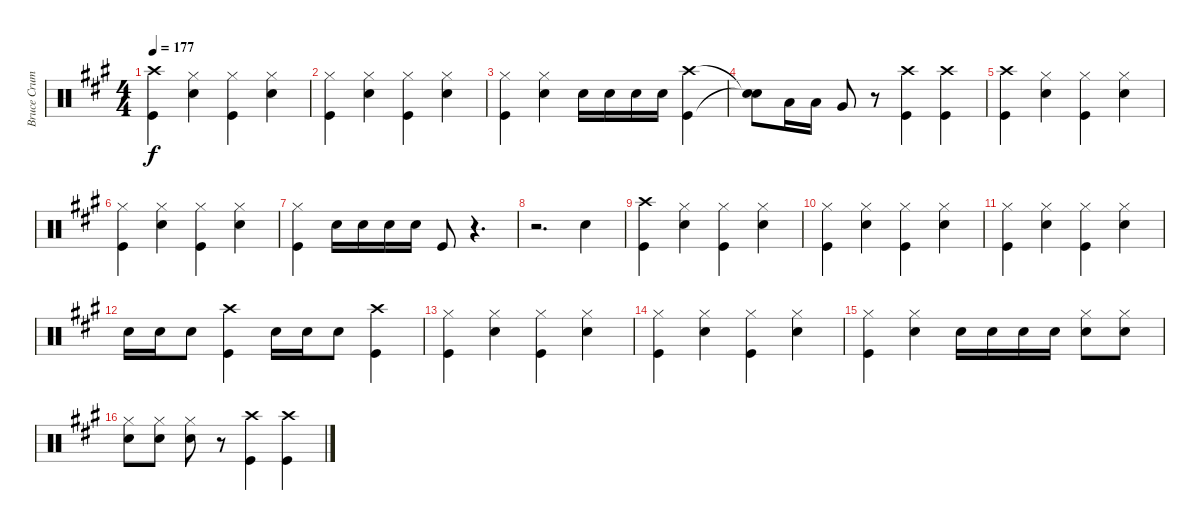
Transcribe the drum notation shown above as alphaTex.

\track ("Bruce Crump Drums" "Bruce Crum") {instrument percussion}
\staff {score}
\articulation defaults
\ts (4 4)
\tempo 177
\clef neutral
\ks a
("Crash high (hit)" "Kick (hit)").4{dy f} ("Hi-Hat (closed)" "Snare (hit) 2").4 ("Hi-Hat (closed)" "Kick (hit)").4 ("Hi-Hat (closed)" "Snare (hit) 2").4 |
("Hi-Hat (closed)" "Kick (hit)").4 ("Hi-Hat (closed)" "Snare (hit) 2").4 ("Hi-Hat (closed)" "Kick (hit)").4 ("Hi-Hat (closed)" "Snare (hit) 2").4 |
("Hi-Hat (closed)" "Kick (hit)").4 ("Hi-Hat (closed)" "Snare (hit) 2").4 "Snare (hit) 2".16 "Snare (hit) 2".16 "Snare (hit) 2".16 "Snare (hit) 2".16 ("Crash high (hit)" "Kick (hit)").4 |
("Snare (hit)"{t} "Snare (hit)"{t}).8 "Low Tom (hit)".16 "Low Tom (hit)".16 "Very Low Tom (hit)".8 r.8 ("Crash high (hit)" "Kick (hit)").4 ("Crash high (hit)" "Kick (hit)").4 |
("Crash high (hit)" "Kick (hit)").4 ("Hi-Hat (closed)" "Snare (hit) 2").4 ("Hi-Hat (closed)" "Kick (hit)").4 ("Hi-Hat (closed)" "Snare (hit) 2").4 |
("Hi-Hat (closed)" "Kick (hit)").4 ("Hi-Hat (closed)" "Snare (hit) 2").4 ("Hi-Hat (closed)" "Kick (hit)").4 ("Hi-Hat (closed)" "Snare (hit) 2").4 |
("Hi-Hat (closed)" "Kick (hit)").4 "Snare (hit) 2".16 "Snare (hit) 2".16 "Snare (hit) 2".16 "Snare (hit) 2".16 "Kick (hit)".8 r.4{d} |
r.2{d} "Snare (hit) 2".4 |
("Crash high (hit)" "Kick (hit)").4 ("Hi-Hat (closed)" "Snare (hit) 2").4 ("Hi-Hat (closed)" "Kick (hit)").4 ("Hi-Hat (closed)" "Snare (hit) 2").4 |
("Hi-Hat (closed)" "Kick (hit)").4 ("Hi-Hat (closed)" "Snare (hit) 2").4 ("Hi-Hat (closed)" "Kick (hit)").4 ("Hi-Hat (closed)" "Snare (hit) 2").4 |
("Hi-Hat (closed)" "Kick (hit)").4 ("Hi-Hat (closed)" "Snare (hit) 2").4 ("Hi-Hat (closed)" "Kick (hit)").4 ("Hi-Hat (closed)" "Snare (hit) 2").4 |
"Snare (hit) 2".16 "Snare (hit) 2".16 "Snare (hit) 2".8 ("Crash high (hit)" "Kick (hit)").4 "Snare (hit) 2".16 "Snare (hit) 2".16 "Snare (hit) 2".8 ("Crash high (hit)" "Kick (hit)").4 |
("Hi-Hat (closed)" "Kick (hit)").4 ("Hi-Hat (closed)" "Snare (hit) 2").4 ("Hi-Hat (closed)" "Kick (hit)").4 ("Hi-Hat (closed)" "Snare (hit) 2").4 |
("Hi-Hat (closed)" "Kick (hit)").4 ("Hi-Hat (closed)" "Snare (hit) 2").4 ("Hi-Hat (closed)" "Kick (hit)").4 ("Hi-Hat (closed)" "Snare (hit) 2").4 |
("Hi-Hat (closed)" "Kick (hit)").4 ("Hi-Hat (closed)" "Snare (hit) 2").4 "Snare (hit) 2".16 "Snare (hit) 2".16 "Snare (hit) 2".16 "Snare (hit) 2".16 ("Hi-Hat (closed)" "Snare (hit) 2").8 ("Hi-Hat (closed)" "Snare (hit) 2").8 |
("Hi-Hat (closed)" "Snare (hit) 2").8 ("Hi-Hat (closed)" "Snare (hit) 2").8 ("Hi-Hat (closed)" "Snare (hit) 2").8 r.8 ("Crash high (hit)" "Kick (hit)").4 ("Crash high (hit)" "Kick (hit)").4
